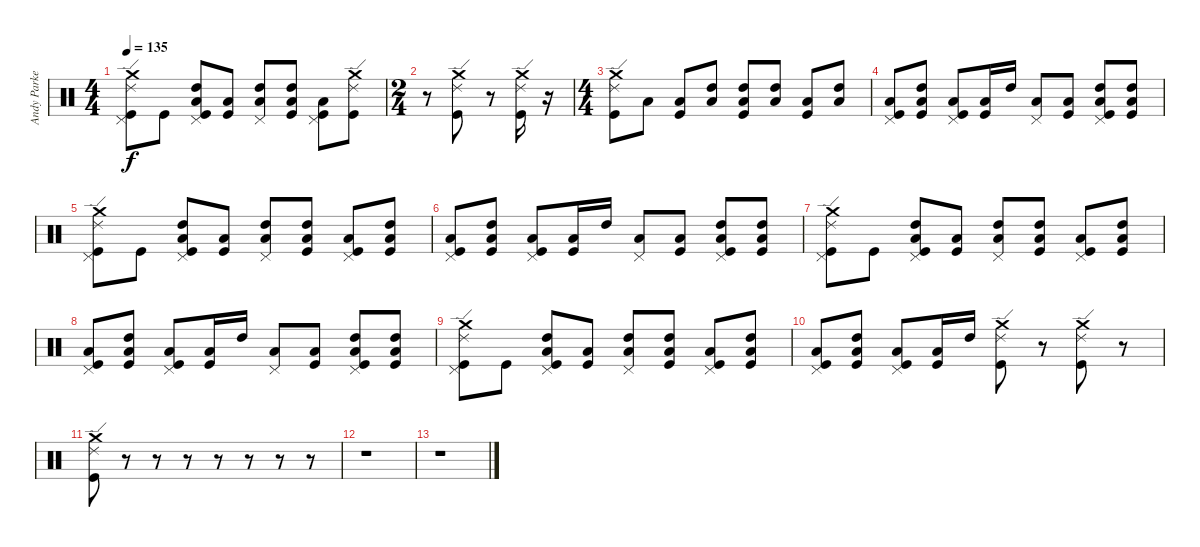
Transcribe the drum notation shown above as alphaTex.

\track ("Andy Parker" "Andy Parke") {instrument percussion}
\staff {score}
\articulation defaults
\ts (4 4)
\tempo 135
\clef neutral
\ks c
("Crash medium (hit)" "Ride (edge) 2" "Pedal Hi-Hat (hit)" "Kick (hit)").8{dy f} "Kick (hit)".8 ("High Tom (hit)" "Low Floor Tom (hit)" "Pedal Hi-Hat (hit)" "Kick (hit)").8 ("Low Floor Tom (hit)" "Kick (hit)").8 ("High Tom (hit)" "Low Floor Tom (hit)" "Pedal Hi-Hat (hit)").8 ("High Tom (hit)" "Low Floor Tom (hit)" "Kick (hit)").8 ("Low Floor Tom (hit)" "Pedal Hi-Hat (hit)" "Kick (hit)").8 ("Crash medium (hit)" "Ride (edge) 2" "Kick (hit)").8 |
\ts (2 4)
r.8 ("Crash medium (hit)" "Ride (edge) 2" "Kick (hit)").8 r.8 ("Crash medium (hit)" "Ride (edge) 2" "Kick (hit)").16 r.16 |
\ts (4 4)
("Crash medium (hit)" "Ride (edge) 2" "Kick (hit)").8 "Low Floor Tom (hit)".8 ("Low Floor Tom (hit)" "Kick (hit)").8 ("High Tom (hit)" "Low Floor Tom (hit)").8 ("High Tom (hit)" "Low Floor Tom (hit)" "Kick (hit)").8 ("High Tom (hit)" "Low Floor Tom (hit)").8 ("Low Floor Tom (hit)" "Kick (hit)").8 ("High Tom (hit)" "Low Floor Tom (hit)").8 |
("Low Floor Tom (hit)" "Pedal Hi-Hat (hit)" "Kick (hit)").8 ("High Tom (hit)" "Low Floor Tom (hit)" "Kick (hit)").8 ("Low Floor Tom (hit)" "Pedal Hi-Hat (hit)" "Kick (hit)").8 ("Low Floor Tom (hit)" "Kick (hit)").16 "High Tom (hit)".16 ("Low Floor Tom (hit)" "Pedal Hi-Hat (hit)").8 ("Low Floor Tom (hit)" "Kick (hit)").8 ("High Tom (hit)" "Low Floor Tom (hit)" "Pedal Hi-Hat (hit)" "Kick (hit)").8 ("High Tom (hit)" "Low Floor Tom (hit)" "Kick (hit)").8 |
("Crash medium (hit)" "Ride (edge) 2" "Pedal Hi-Hat (hit)" "Kick (hit)").8 "Kick (hit)".8 ("High Tom (hit)" "Low Floor Tom (hit)" "Pedal Hi-Hat (hit)" "Kick (hit)").8 ("Low Floor Tom (hit)" "Kick (hit)").8 ("High Tom (hit)" "Low Floor Tom (hit)" "Pedal Hi-Hat (hit)").8 ("High Tom (hit)" "Low Floor Tom (hit)" "Kick (hit)").8 ("Low Floor Tom (hit)" "Pedal Hi-Hat (hit)" "Kick (hit)").8 ("High Tom (hit)" "Low Floor Tom (hit)" "Kick (hit)").8 |
("Low Floor Tom (hit)" "Pedal Hi-Hat (hit)" "Kick (hit)").8 ("High Tom (hit)" "Low Floor Tom (hit)" "Kick (hit)").8 ("Low Floor Tom (hit)" "Pedal Hi-Hat (hit)" "Kick (hit)").8 ("Low Floor Tom (hit)" "Kick (hit)").16 "High Tom (hit)".16 ("Low Floor Tom (hit)" "Pedal Hi-Hat (hit)").8 ("Low Floor Tom (hit)" "Kick (hit)").8 ("High Tom (hit)" "Low Floor Tom (hit)" "Pedal Hi-Hat (hit)" "Kick (hit)").8 ("High Tom (hit)" "Low Floor Tom (hit)" "Kick (hit)").8 |
("Crash medium (hit)" "Ride (edge) 2" "Pedal Hi-Hat (hit)" "Kick (hit)").8 "Kick (hit)".8 ("High Tom (hit)" "Low Floor Tom (hit)" "Pedal Hi-Hat (hit)" "Kick (hit)").8 ("Low Floor Tom (hit)" "Kick (hit)").8 ("High Tom (hit)" "Low Floor Tom (hit)" "Pedal Hi-Hat (hit)").8 ("High Tom (hit)" "Low Floor Tom (hit)" "Kick (hit)").8 ("Low Floor Tom (hit)" "Pedal Hi-Hat (hit)" "Kick (hit)").8 ("High Tom (hit)" "Low Floor Tom (hit)" "Kick (hit)").8 |
("Low Floor Tom (hit)" "Pedal Hi-Hat (hit)" "Kick (hit)").8 ("High Tom (hit)" "Low Floor Tom (hit)" "Kick (hit)").8 ("Low Floor Tom (hit)" "Pedal Hi-Hat (hit)" "Kick (hit)").8 ("Low Floor Tom (hit)" "Kick (hit)").16 "High Tom (hit)".16 ("Low Floor Tom (hit)" "Pedal Hi-Hat (hit)").8 ("Low Floor Tom (hit)" "Kick (hit)").8 ("High Tom (hit)" "Low Floor Tom (hit)" "Pedal Hi-Hat (hit)" "Kick (hit)").8 ("High Tom (hit)" "Low Floor Tom (hit)" "Kick (hit)").8 |
("Crash medium (hit)" "Ride (edge) 2" "Pedal Hi-Hat (hit)" "Kick (hit)").8 "Kick (hit)".8 ("High Tom (hit)" "Low Floor Tom (hit)" "Pedal Hi-Hat (hit)" "Kick (hit)").8 ("Low Floor Tom (hit)" "Kick (hit)").8 ("High Tom (hit)" "Low Floor Tom (hit)" "Pedal Hi-Hat (hit)").8 ("High Tom (hit)" "Low Floor Tom (hit)" "Kick (hit)").8 ("Low Floor Tom (hit)" "Pedal Hi-Hat (hit)" "Kick (hit)").8 ("High Tom (hit)" "Low Floor Tom (hit)" "Kick (hit)").8 |
("Low Floor Tom (hit)" "Pedal Hi-Hat (hit)" "Kick (hit)").8 ("High Tom (hit)" "Low Floor Tom (hit)" "Kick (hit)").8 ("Low Floor Tom (hit)" "Pedal Hi-Hat (hit)" "Kick (hit)").8 ("Low Floor Tom (hit)" "Kick (hit)").16 "High Tom (hit)".16 ("Crash medium (hit)" "Ride (edge) 2" "Kick (hit)").8 r.8 ("Crash medium (hit)" "Ride (edge) 2" "Kick (hit)").8 r.8 |
("Crash medium (hit)" "Ride (edge) 2" "Kick (hit)").8 r.8 r.8 r.8 r.8 r.8 r.8 r.8 |
r.1 |
r.1
